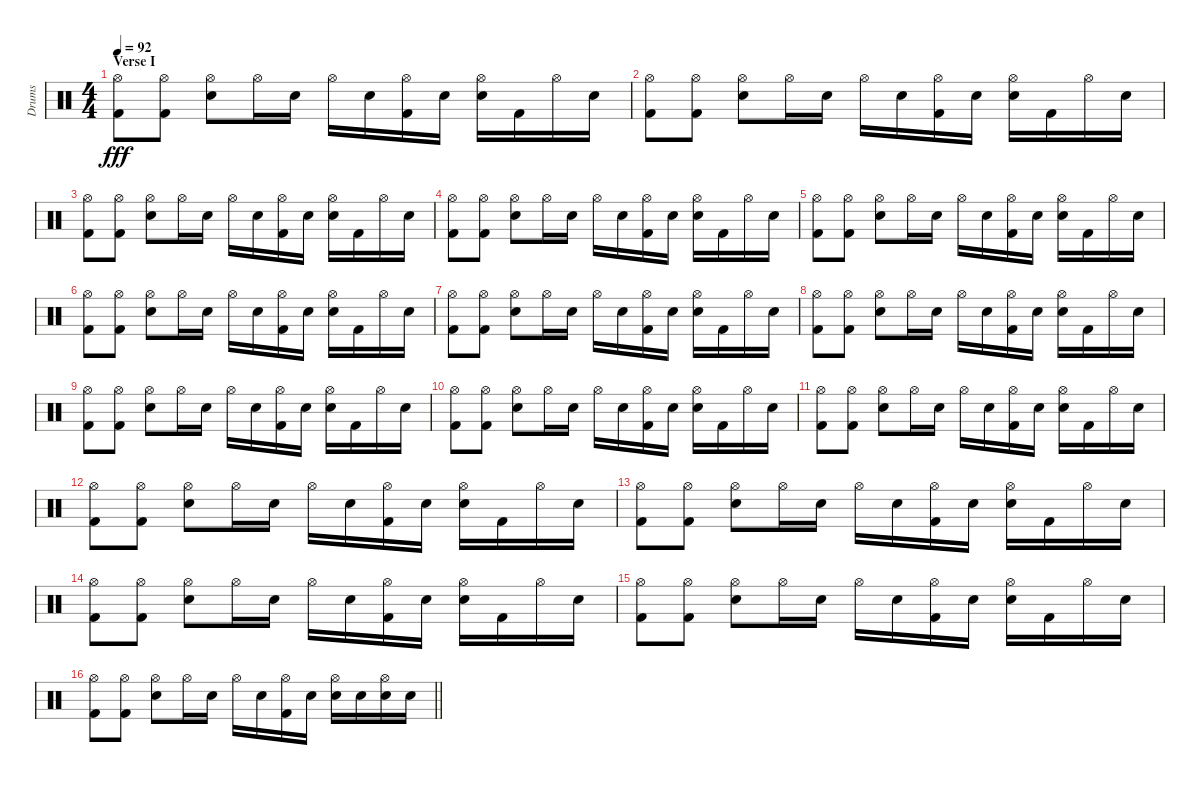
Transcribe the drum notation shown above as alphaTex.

\track ("Drums" "Drums") {instrument percussion}
\staff {score}
\articulation defaults
\ts (4 4)
\section ("" "Verse I")
\tempo 92
\clef neutral
\ks c
("Hi-Hat (open)" "Kick (hit) 2").8{dy fff} ("Hi-Hat (open)" "Kick (hit) 2").8 ("Hi-Hat (open)" "Snare (hit) 2").8 "Hi-Hat (open)".16 "Snare (hit) 2".16 "Hi-Hat (open)".16 "Snare (hit) 2".16 ("Hi-Hat (open)" "Kick (hit) 2").16 "Snare (hit) 2".16 ("Hi-Hat (open)" "Snare (hit) 2").16 "Kick (hit) 2".16 "Hi-Hat (open)".16 "Snare (hit) 2".16 |
("Hi-Hat (open)" "Kick (hit) 2").8 ("Hi-Hat (open)" "Kick (hit) 2").8 ("Hi-Hat (open)" "Snare (hit) 2").8 "Hi-Hat (open)".16 "Snare (hit) 2".16 "Hi-Hat (open)".16 "Snare (hit) 2".16 ("Hi-Hat (open)" "Kick (hit) 2").16 "Snare (hit) 2".16 ("Hi-Hat (open)" "Snare (hit) 2").16 "Kick (hit) 2".16 "Hi-Hat (open)".16 "Snare (hit) 2".16 |
("Hi-Hat (open)" "Kick (hit) 2").8 ("Hi-Hat (open)" "Kick (hit) 2").8 ("Hi-Hat (open)" "Snare (hit) 2").8 "Hi-Hat (open)".16 "Snare (hit) 2".16 "Hi-Hat (open)".16 "Snare (hit) 2".16 ("Hi-Hat (open)" "Kick (hit) 2").16 "Snare (hit) 2".16 ("Hi-Hat (open)" "Snare (hit) 2").16 "Kick (hit) 2".16 "Hi-Hat (open)".16 "Snare (hit) 2".16 |
("Hi-Hat (open)" "Kick (hit) 2").8 ("Hi-Hat (open)" "Kick (hit) 2").8 ("Hi-Hat (open)" "Snare (hit) 2").8 "Hi-Hat (open)".16 "Snare (hit) 2".16 "Hi-Hat (open)".16 "Snare (hit) 2".16 ("Hi-Hat (open)" "Kick (hit) 2").16 "Snare (hit) 2".16 ("Hi-Hat (open)" "Snare (hit) 2").16 "Kick (hit) 2".16 "Hi-Hat (open)".16 "Snare (hit) 2".16 |
("Hi-Hat (open)" "Kick (hit) 2").8 ("Hi-Hat (open)" "Kick (hit) 2").8 ("Hi-Hat (open)" "Snare (hit) 2").8 "Hi-Hat (open)".16 "Snare (hit) 2".16 "Hi-Hat (open)".16 "Snare (hit) 2".16 ("Hi-Hat (open)" "Kick (hit) 2").16 "Snare (hit) 2".16 ("Hi-Hat (open)" "Snare (hit) 2").16 "Kick (hit) 2".16 "Hi-Hat (open)".16 "Snare (hit) 2".16 |
("Hi-Hat (open)" "Kick (hit) 2").8 ("Hi-Hat (open)" "Kick (hit) 2").8 ("Hi-Hat (open)" "Snare (hit) 2").8 "Hi-Hat (open)".16 "Snare (hit) 2".16 "Hi-Hat (open)".16 "Snare (hit) 2".16 ("Hi-Hat (open)" "Kick (hit) 2").16 "Snare (hit) 2".16 ("Hi-Hat (open)" "Snare (hit) 2").16 "Kick (hit) 2".16 "Hi-Hat (open)".16 "Snare (hit) 2".16 |
("Hi-Hat (open)" "Kick (hit) 2").8 ("Hi-Hat (open)" "Kick (hit) 2").8 ("Hi-Hat (open)" "Snare (hit) 2").8 "Hi-Hat (open)".16 "Snare (hit) 2".16 "Hi-Hat (open)".16 "Snare (hit) 2".16 ("Hi-Hat (open)" "Kick (hit) 2").16 "Snare (hit) 2".16 ("Hi-Hat (open)" "Snare (hit) 2").16 "Kick (hit) 2".16 "Hi-Hat (open)".16 "Snare (hit) 2".16 |
("Hi-Hat (open)" "Kick (hit) 2").8 ("Hi-Hat (open)" "Kick (hit) 2").8 ("Hi-Hat (open)" "Snare (hit) 2").8 "Hi-Hat (open)".16 "Snare (hit) 2".16 "Hi-Hat (open)".16 "Snare (hit) 2".16 ("Hi-Hat (open)" "Kick (hit) 2").16 "Snare (hit) 2".16 ("Hi-Hat (open)" "Snare (hit) 2").16 "Kick (hit) 2".16 "Hi-Hat (open)".16 "Snare (hit) 2".16 |
("Hi-Hat (open)" "Kick (hit) 2").8 ("Hi-Hat (open)" "Kick (hit) 2").8 ("Hi-Hat (open)" "Snare (hit) 2").8 "Hi-Hat (open)".16 "Snare (hit) 2".16 "Hi-Hat (open)".16 "Snare (hit) 2".16 ("Hi-Hat (open)" "Kick (hit) 2").16 "Snare (hit) 2".16 ("Hi-Hat (open)" "Snare (hit) 2").16 "Kick (hit) 2".16 "Hi-Hat (open)".16 "Snare (hit) 2".16 |
("Hi-Hat (open)" "Kick (hit) 2").8 ("Hi-Hat (open)" "Kick (hit) 2").8 ("Hi-Hat (open)" "Snare (hit) 2").8 "Hi-Hat (open)".16 "Snare (hit) 2".16 "Hi-Hat (open)".16 "Snare (hit) 2".16 ("Hi-Hat (open)" "Kick (hit) 2").16 "Snare (hit) 2".16 ("Hi-Hat (open)" "Snare (hit) 2").16 "Kick (hit) 2".16 "Hi-Hat (open)".16 "Snare (hit) 2".16 |
("Hi-Hat (open)" "Kick (hit) 2").8 ("Hi-Hat (open)" "Kick (hit) 2").8 ("Hi-Hat (open)" "Snare (hit) 2").8 "Hi-Hat (open)".16 "Snare (hit) 2".16 "Hi-Hat (open)".16 "Snare (hit) 2".16 ("Hi-Hat (open)" "Kick (hit) 2").16 "Snare (hit) 2".16 ("Hi-Hat (open)" "Snare (hit) 2").16 "Kick (hit) 2".16 "Hi-Hat (open)".16 "Snare (hit) 2".16 |
("Hi-Hat (open)" "Kick (hit) 2").8 ("Hi-Hat (open)" "Kick (hit) 2").8 ("Hi-Hat (open)" "Snare (hit) 2").8 "Hi-Hat (open)".16 "Snare (hit) 2".16 "Hi-Hat (open)".16 "Snare (hit) 2".16 ("Hi-Hat (open)" "Kick (hit) 2").16 "Snare (hit) 2".16 ("Hi-Hat (open)" "Snare (hit) 2").16 "Kick (hit) 2".16 "Hi-Hat (open)".16 "Snare (hit) 2".16 |
("Hi-Hat (open)" "Kick (hit) 2").8 ("Hi-Hat (open)" "Kick (hit) 2").8 ("Hi-Hat (open)" "Snare (hit) 2").8 "Hi-Hat (open)".16 "Snare (hit) 2".16 "Hi-Hat (open)".16 "Snare (hit) 2".16 ("Hi-Hat (open)" "Kick (hit) 2").16 "Snare (hit) 2".16 ("Hi-Hat (open)" "Snare (hit) 2").16 "Kick (hit) 2".16 "Hi-Hat (open)".16 "Snare (hit) 2".16 |
("Hi-Hat (open)" "Kick (hit) 2").8 ("Hi-Hat (open)" "Kick (hit) 2").8 ("Hi-Hat (open)" "Snare (hit) 2").8 "Hi-Hat (open)".16 "Snare (hit) 2".16 "Hi-Hat (open)".16 "Snare (hit) 2".16 ("Hi-Hat (open)" "Kick (hit) 2").16 "Snare (hit) 2".16 ("Hi-Hat (open)" "Snare (hit) 2").16 "Kick (hit) 2".16 "Hi-Hat (open)".16 "Snare (hit) 2".16 |
("Hi-Hat (open)" "Kick (hit) 2").8 ("Hi-Hat (open)" "Kick (hit) 2").8 ("Hi-Hat (open)" "Snare (hit) 2").8 "Hi-Hat (open)".16 "Snare (hit) 2".16 "Hi-Hat (open)".16 "Snare (hit) 2".16 ("Hi-Hat (open)" "Kick (hit) 2").16 "Snare (hit) 2".16 ("Hi-Hat (open)" "Snare (hit) 2").16 "Kick (hit) 2".16 "Hi-Hat (open)".16 "Snare (hit) 2".16 |
\barLineRight lightlight
("Hi-Hat (open)" "Kick (hit) 2").8 ("Hi-Hat (open)" "Kick (hit) 2").8 ("Hi-Hat (open)" "Snare (hit) 2").8 "Hi-Hat (open)".16 "Snare (hit) 2".16 "Hi-Hat (open)".16 "Snare (hit) 2".16 ("Hi-Hat (open)" "Kick (hit) 2").16 "Snare (hit) 2".16 ("Hi-Hat (open)" "Snare (hit) 2").16 "Snare (hit) 2".16 ("Hi-Hat (open)" "Snare (hit) 2").16 "Snare (hit) 2".16
